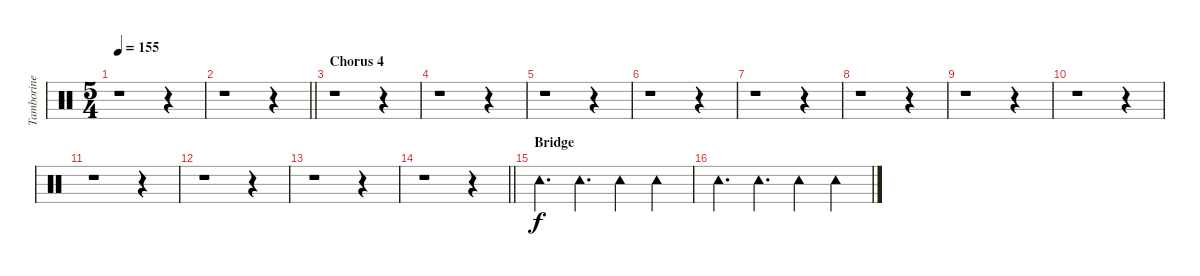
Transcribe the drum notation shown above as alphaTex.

\track ("Tamborine" "Tamborine") {instrument percussion}
\staff {score}
\articulation defaults
\ts (5 4)
\tempo 155
\clef neutral
\ks c
r.1{dy f} r.4 |
\barLineRight lightlight
r.1 r.4 |
\section ("" "Chorus 4")
r.1 r.4 |
r.1 r.4 |
r.1 r.4 |
r.1 r.4 |
r.1 r.4 |
r.1 r.4 |
r.1 r.4 |
r.1 r.4 |
r.1 r.4 |
r.1 r.4 |
r.1 r.4 |
\barLineRight lightlight
r.1 r.4 |
\section ("" "Bridge")
"Tambourine (hit)".4{d} "Tambourine (hit)".4{d} "Tambourine (hit)".4 "Tambourine (hit)".4 |
"Tambourine (hit)".4{d} "Tambourine (hit)".4{d} "Tambourine (hit)".4 "Tambourine (hit)".4
